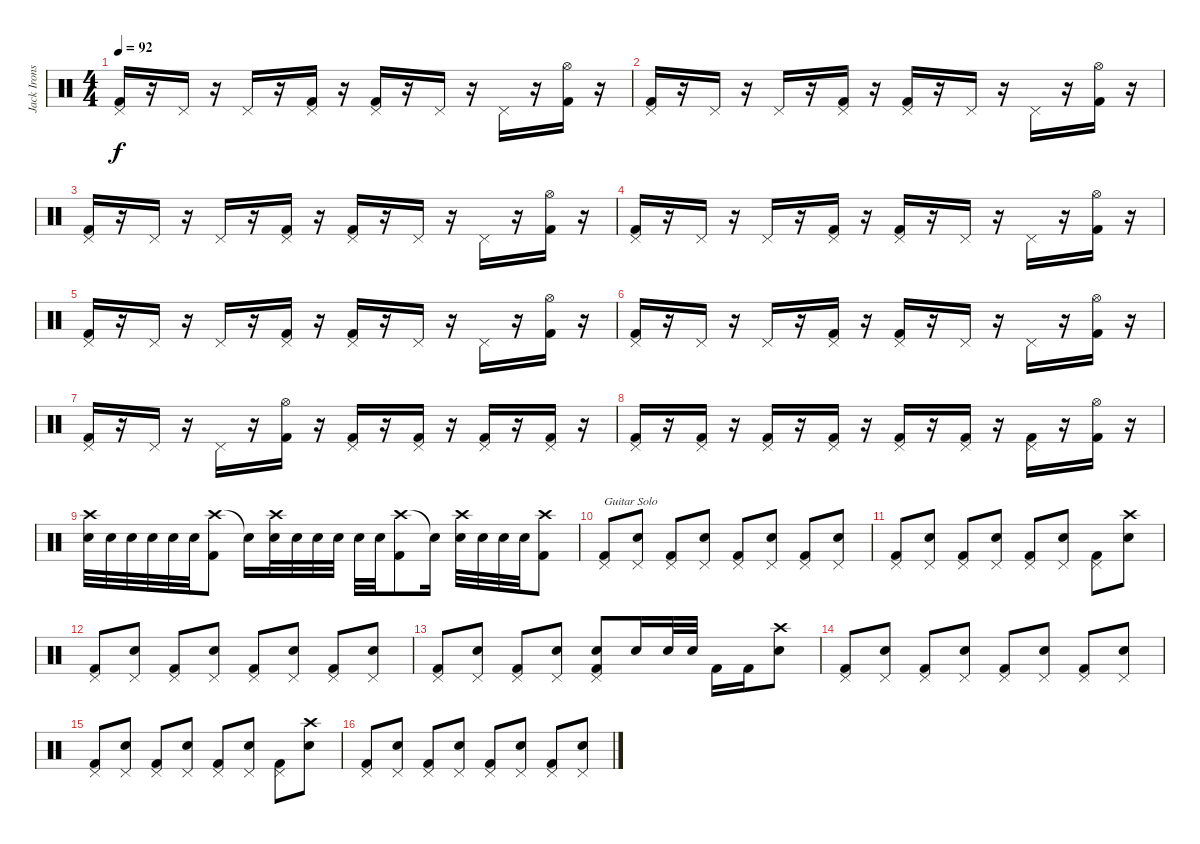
\track ("Jack Irons" "Jack Irons") {instrument percussion}
\staff {score}
\articulation defaults
\ts (4 4)
\tempo 92
\clef neutral
\ks c
("Pedal Hi-Hat (hit)" "Kick (hit) 2").16{dy f} r.16 "Pedal Hi-Hat (hit)".16 r.16 "Pedal Hi-Hat (hit)".16 r.16 ("Pedal Hi-Hat (hit)" "Kick (hit) 2").16 r.16 ("Pedal Hi-Hat (hit)" "Kick (hit) 2").16 r.16 "Pedal Hi-Hat (hit)".16 r.16 "Pedal Hi-Hat (hit)".16 r.16 ("Hi-Hat (open)" "Kick (hit) 2").16 r.16 |
("Pedal Hi-Hat (hit)" "Kick (hit) 2").16 r.16 "Pedal Hi-Hat (hit)".16 r.16 "Pedal Hi-Hat (hit)".16 r.16 ("Pedal Hi-Hat (hit)" "Kick (hit) 2").16 r.16 ("Pedal Hi-Hat (hit)" "Kick (hit) 2").16 r.16 "Pedal Hi-Hat (hit)".16 r.16 "Pedal Hi-Hat (hit)".16 r.16 ("Hi-Hat (open)" "Kick (hit) 2").16 r.16 |
("Pedal Hi-Hat (hit)" "Kick (hit) 2").16 r.16 "Pedal Hi-Hat (hit)".16 r.16 "Pedal Hi-Hat (hit)".16 r.16 ("Pedal Hi-Hat (hit)" "Kick (hit) 2").16 r.16 ("Pedal Hi-Hat (hit)" "Kick (hit) 2").16 r.16 "Pedal Hi-Hat (hit)".16 r.16 "Pedal Hi-Hat (hit)".16 r.16 ("Hi-Hat (open)" "Kick (hit) 2").16 r.16 |
("Pedal Hi-Hat (hit)" "Kick (hit) 2").16 r.16 "Pedal Hi-Hat (hit)".16 r.16 "Pedal Hi-Hat (hit)".16 r.16 ("Pedal Hi-Hat (hit)" "Kick (hit) 2").16 r.16 ("Pedal Hi-Hat (hit)" "Kick (hit) 2").16 r.16 "Pedal Hi-Hat (hit)".16 r.16 "Pedal Hi-Hat (hit)".16 r.16 ("Hi-Hat (open)" "Kick (hit) 2").16 r.16 |
("Pedal Hi-Hat (hit)" "Kick (hit) 2").16 r.16 "Pedal Hi-Hat (hit)".16 r.16 "Pedal Hi-Hat (hit)".16 r.16 ("Pedal Hi-Hat (hit)" "Kick (hit) 2").16 r.16 ("Pedal Hi-Hat (hit)" "Kick (hit) 2").16 r.16 "Pedal Hi-Hat (hit)".16 r.16 "Pedal Hi-Hat (hit)".16 r.16 ("Hi-Hat (open)" "Kick (hit) 2").16 r.16 |
("Pedal Hi-Hat (hit)" "Kick (hit) 2").16 r.16 "Pedal Hi-Hat (hit)".16 r.16 "Pedal Hi-Hat (hit)".16 r.16 ("Pedal Hi-Hat (hit)" "Kick (hit) 2").16 r.16 ("Pedal Hi-Hat (hit)" "Kick (hit) 2").16 r.16 "Pedal Hi-Hat (hit)".16 r.16 "Pedal Hi-Hat (hit)".16 r.16 ("Hi-Hat (open)" "Kick (hit) 2").16 r.16 |
("Pedal Hi-Hat (hit)" "Kick (hit) 2").16 r.16 "Pedal Hi-Hat (hit)".16 r.16 "Pedal Hi-Hat (hit)".16 r.16 ("Hi-Hat (open)" "Kick (hit) 2").16 r.16 ("Pedal Hi-Hat (hit)" "Kick (hit) 2").16 r.16 ("Pedal Hi-Hat (hit)" "Kick (hit) 2").16 r.16 ("Pedal Hi-Hat (hit)" "Kick (hit) 2").16 r.16 ("Pedal Hi-Hat (hit)" "Kick (hit) 2").16 r.16 |
("Pedal Hi-Hat (hit)" "Kick (hit) 2").16 r.16 ("Pedal Hi-Hat (hit)" "Kick (hit) 2").16 r.16 ("Pedal Hi-Hat (hit)" "Kick (hit) 2").16 r.16 ("Pedal Hi-Hat (hit)" "Kick (hit) 2").16 r.16 ("Pedal Hi-Hat (hit)" "Kick (hit) 2").16 r.16 ("Pedal Hi-Hat (hit)" "Kick (hit) 2").16 r.16 ("Pedal Hi-Hat (hit)" "Kick (hit) 2").16 r.16 ("Hi-Hat (open)" "Kick (hit) 2").16 r.16 |
("Crash high (hit)" "Snare (hit) 2").32 "Snare (hit) 2".32 "Snare (hit) 2".32 "Snare (hit) 2".32 "Snare (hit) 2".32 "Snare (hit) 2".32 ("Crash high (hit)" "Kick (hit) 2").8 "Snare (hit)"{t}.16 ("Crash high (hit)" "Snare (hit) 2").32 "Snare (hit) 2".32 "Snare (hit) 2".32 "Snare (hit) 2".32 "Snare (hit) 2".32 "Snare (hit) 2".32 ("Crash high (hit)" "Kick (hit) 2").8 "Snare (hit)"{t}.16 ("Crash high (hit)" "Snare (hit) 2").32 "Snare (hit) 2".32 "Snare (hit) 2".32 "Snare (hit) 2".32 ("Crash high (hit)" "Kick (hit) 2").8 |
("Pedal Hi-Hat (hit)" "Kick (hit) 2").8{txt "Guitar Solo"} ("Pedal Hi-Hat (hit)" "Snare (hit) 2").8 ("Pedal Hi-Hat (hit)" "Kick (hit) 2").8 ("Pedal Hi-Hat (hit)" "Snare (hit) 2").8 ("Pedal Hi-Hat (hit)" "Kick (hit) 2").8 ("Pedal Hi-Hat (hit)" "Snare (hit) 2").8 ("Pedal Hi-Hat (hit)" "Kick (hit) 2").8 ("Pedal Hi-Hat (hit)" "Snare (hit) 2").8 |
("Pedal Hi-Hat (hit)" "Kick (hit) 2").8 ("Pedal Hi-Hat (hit)" "Snare (hit) 2").8 ("Pedal Hi-Hat (hit)" "Kick (hit) 2").8 ("Pedal Hi-Hat (hit)" "Snare (hit) 2").8 ("Pedal Hi-Hat (hit)" "Kick (hit) 2").8 ("Pedal Hi-Hat (hit)" "Snare (hit) 2").8 ("Pedal Hi-Hat (hit)" "Kick (hit) 2").8 ("Crash high (hit)" "Snare (hit) 2").8 |
("Pedal Hi-Hat (hit)" "Kick (hit) 2").8 ("Pedal Hi-Hat (hit)" "Snare (hit) 2").8 ("Pedal Hi-Hat (hit)" "Kick (hit) 2").8 ("Pedal Hi-Hat (hit)" "Snare (hit) 2").8 ("Pedal Hi-Hat (hit)" "Kick (hit) 2").8 ("Pedal Hi-Hat (hit)" "Snare (hit) 2").8 ("Pedal Hi-Hat (hit)" "Kick (hit) 2").8 ("Pedal Hi-Hat (hit)" "Snare (hit) 2").8 |
("Pedal Hi-Hat (hit)" "Kick (hit) 2").8 ("Pedal Hi-Hat (hit)" "Snare (hit) 2").8 ("Pedal Hi-Hat (hit)" "Kick (hit) 2").8 ("Pedal Hi-Hat (hit)" "Snare (hit) 2").8 ("Pedal Hi-Hat (hit)" "Snare (hit) 2" "Kick (hit) 2").8 "Snare (hit) 2".16 "Snare (hit) 2".32 "Snare (hit) 2".32 "Kick (hit) 2".16 "Kick (hit) 2".16 ("Crash high (hit)" "Snare (hit) 2").8 |
("Pedal Hi-Hat (hit)" "Kick (hit) 2").8 ("Pedal Hi-Hat (hit)" "Snare (hit) 2").8 ("Pedal Hi-Hat (hit)" "Kick (hit) 2").8 ("Pedal Hi-Hat (hit)" "Snare (hit) 2").8 ("Pedal Hi-Hat (hit)" "Kick (hit) 2").8 ("Pedal Hi-Hat (hit)" "Snare (hit) 2").8 ("Pedal Hi-Hat (hit)" "Kick (hit) 2").8 ("Pedal Hi-Hat (hit)" "Snare (hit) 2").8 |
("Pedal Hi-Hat (hit)" "Kick (hit) 2").8 ("Pedal Hi-Hat (hit)" "Snare (hit) 2").8 ("Pedal Hi-Hat (hit)" "Kick (hit) 2").8 ("Pedal Hi-Hat (hit)" "Snare (hit) 2").8 ("Pedal Hi-Hat (hit)" "Kick (hit) 2").8 ("Pedal Hi-Hat (hit)" "Snare (hit) 2").8 ("Pedal Hi-Hat (hit)" "Kick (hit) 2").8 ("Crash high (hit)" "Snare (hit) 2").8 |
("Pedal Hi-Hat (hit)" "Kick (hit) 2").8 ("Pedal Hi-Hat (hit)" "Snare (hit) 2").8 ("Pedal Hi-Hat (hit)" "Kick (hit) 2").8 ("Pedal Hi-Hat (hit)" "Snare (hit) 2").8 ("Pedal Hi-Hat (hit)" "Kick (hit) 2").8 ("Pedal Hi-Hat (hit)" "Snare (hit) 2").8 ("Pedal Hi-Hat (hit)" "Kick (hit) 2").8 ("Pedal Hi-Hat (hit)" "Snare (hit) 2").8
